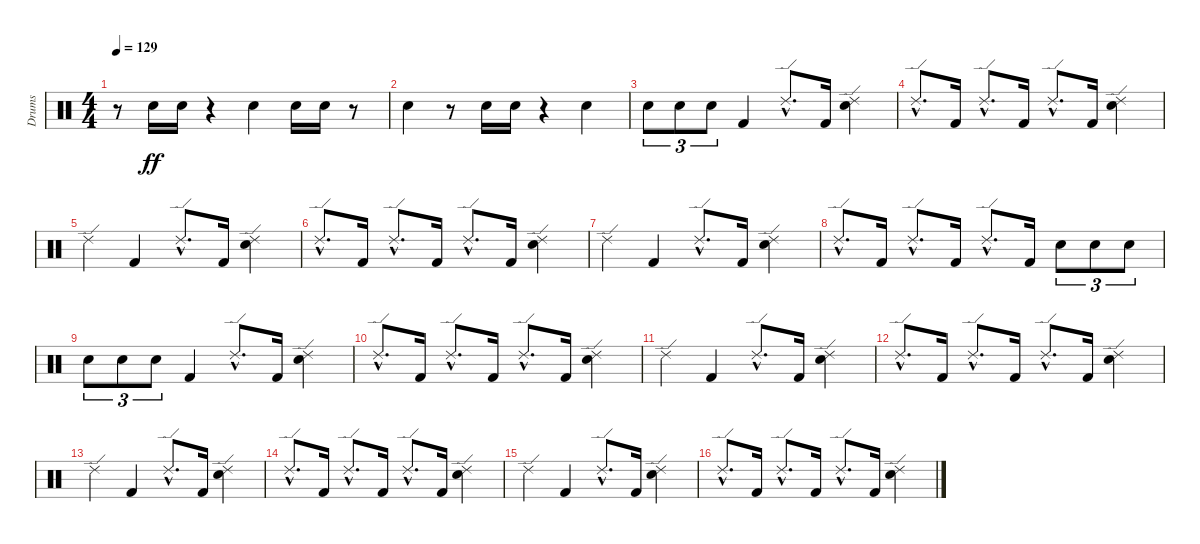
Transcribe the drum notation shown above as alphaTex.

\track ("Drums" "Drums") {instrument percussion}
\staff {score}
\articulation defaults
\ts (4 4)
\tempo 129
\clef neutral
\ks c
r.8{dy ff} "Electric Snare (hit)".16 "Electric Snare (hit)".16 r.4 "Electric Snare (hit)".4 "Electric Snare (hit)".16 "Electric Snare (hit)".16 r.8 |
"Electric Snare (hit)".4 r.8 "Electric Snare (hit)".16 "Electric Snare (hit)".16 r.4 "Electric Snare (hit)".4 |
"Electric Snare (hit)".8{tu (3 2)} "Electric Snare (hit)".8{tu (3 2)} "Electric Snare (hit)".8{tu (3 2)} "Kick (hit) 2".4 "Ride (edge) 2"{hac}.8{d} "Kick (hit) 2".16 ("Electric Snare (hit)" "Ride (edge) 2").4 |
"Ride (edge) 2"{hac}.8{d} "Kick (hit) 2".16 "Ride (edge) 2"{hac}.8{d} "Kick (hit) 2".16 "Ride (edge) 2"{hac}.8{d} "Kick (hit) 2".16 ("Electric Snare (hit)" "Ride (edge) 2").4 |
"Ride (edge) 2".4 "Kick (hit) 2".4 "Ride (edge) 2"{hac}.8{d} "Kick (hit) 2".16 ("Electric Snare (hit)" "Ride (edge) 2").4 |
"Ride (edge) 2"{hac}.8{d} "Kick (hit) 2".16 "Ride (edge) 2"{hac}.8{d} "Kick (hit) 2".16 "Ride (edge) 2"{hac}.8{d} "Kick (hit) 2".16 ("Electric Snare (hit)" "Ride (edge) 2").4 |
"Ride (edge) 2".4 "Kick (hit) 2".4 "Ride (edge) 2"{hac}.8{d} "Kick (hit) 2".16 ("Electric Snare (hit)" "Ride (edge) 2").4 |
"Ride (edge) 2"{hac}.8{d} "Kick (hit) 2".16 "Ride (edge) 2"{hac}.8{d} "Kick (hit) 2".16 "Ride (edge) 2"{hac}.8{d} "Kick (hit) 2".16 "Electric Snare (hit)".8{tu (3 2)} "Electric Snare (hit)".8{tu (3 2)} "Electric Snare (hit)".8{tu (3 2)} |
"Electric Snare (hit)".8{tu (3 2)} "Electric Snare (hit)".8{tu (3 2)} "Electric Snare (hit)".8{tu (3 2)} "Kick (hit) 2".4 "Ride (edge) 2"{hac}.8{d} "Kick (hit) 2".16 ("Electric Snare (hit)" "Ride (edge) 2").4 |
"Ride (edge) 2"{hac}.8{d} "Kick (hit) 2".16 "Ride (edge) 2"{hac}.8{d} "Kick (hit) 2".16 "Ride (edge) 2"{hac}.8{d} "Kick (hit) 2".16 ("Electric Snare (hit)" "Ride (edge) 2").4 |
"Ride (edge) 2".4 "Kick (hit) 2".4 "Ride (edge) 2"{hac}.8{d} "Kick (hit) 2".16 ("Electric Snare (hit)" "Ride (edge) 2").4 |
"Ride (edge) 2"{hac}.8{d} "Kick (hit) 2".16 "Ride (edge) 2"{hac}.8{d} "Kick (hit) 2".16 "Ride (edge) 2"{hac}.8{d} "Kick (hit) 2".16 ("Electric Snare (hit)" "Ride (edge) 2").4 |
"Ride (edge) 2".4 "Kick (hit) 2".4 "Ride (edge) 2"{hac}.8{d} "Kick (hit) 2".16 ("Electric Snare (hit)" "Ride (edge) 2").4 |
"Ride (edge) 2"{hac}.8{d} "Kick (hit) 2".16 "Ride (edge) 2"{hac}.8{d} "Kick (hit) 2".16 "Ride (edge) 2"{hac}.8{d} "Kick (hit) 2".16 ("Electric Snare (hit)" "Ride (edge) 2").4 |
"Ride (edge) 2".4 "Kick (hit) 2".4 "Ride (edge) 2"{hac}.8{d} "Kick (hit) 2".16 ("Electric Snare (hit)" "Ride (edge) 2").4 |
"Ride (edge) 2"{hac}.8{d} "Kick (hit) 2".16 "Ride (edge) 2"{hac}.8{d} "Kick (hit) 2".16 "Ride (edge) 2"{hac}.8{d} "Kick (hit) 2".16 ("Electric Snare (hit)" "Ride (edge) 2").4
